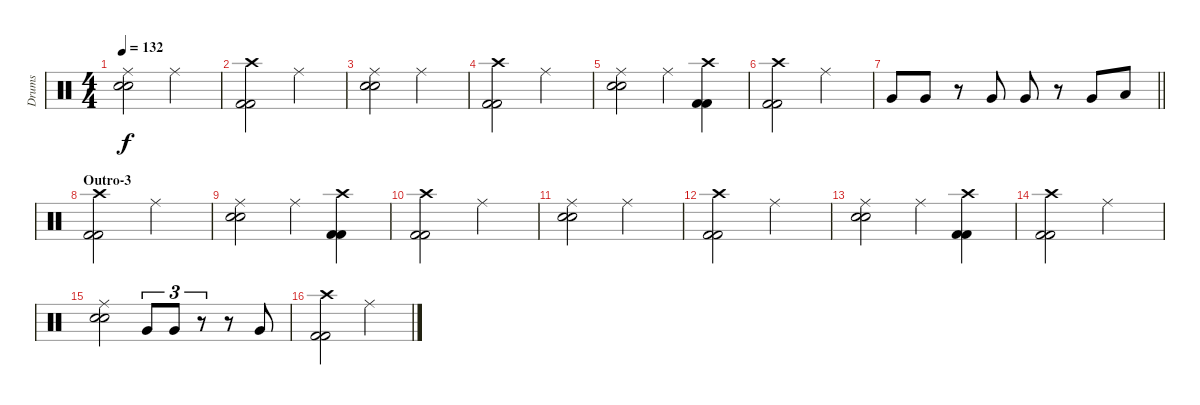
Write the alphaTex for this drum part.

\track ("Drums" "Drums") {instrument percussion}
\staff {score}
\articulation defaults
\ts (4 4)
\tempo 132
\clef neutral
\ks c
("Ride (middle)" "Snare (hit) 2" "Snare (hit) 2").2{dy f} "Ride (middle)".2 |
("Crash high (hit)" "Kick (hit) 2" "Kick (hit) 2").2 "Ride (middle)".2 |
("Ride (middle)" "Snare (hit) 2" "Snare (hit) 2").2 "Ride (middle)".2 |
("Crash high (hit)" "Kick (hit) 2" "Kick (hit) 2").2 "Ride (middle)".2 |
("Ride (middle)" "Snare (hit) 2" "Snare (hit) 2").2 "Ride (middle)".4 ("Crash high (hit)" "Kick (hit) 2" "Kick (hit) 2").4 |
("Crash high (hit)" "Kick (hit) 2" "Kick (hit) 2").2 "Ride (middle)".2 |
\barLineRight lightlight "Very Low Tom (hit)".8 "Very Low Tom (hit)".8
r.8 "Very Low Tom (hit)".8 "Very Low Tom (hit)".8 r.8 "Very Low Tom (hit)".8 "Low Floor Tom (hit)".8 |
\section ("" "Outro-3")
("Crash high (hit)" "Kick (hit) 2" "Kick (hit) 2").2{volume 9} "Ride (middle)".2 |
("Ride (middle)" "Snare (hit) 2" "Snare (hit) 2").2 "Ride (middle)".4 ("Crash high (hit)" "Kick (hit) 2" "Kick (hit) 2").4 |
("Crash high (hit)" "Kick (hit) 2" "Kick (hit) 2").2 "Ride (middle)".2 |
("Ride (middle)" "Snare (hit) 2" "Snare (hit) 2").2 "Ride (middle)".2 |
("Crash high (hit)" "Kick (hit) 2" "Kick (hit) 2").2 "Ride (middle)".2 |
("Ride (middle)" "Snare (hit) 2" "Snare (hit) 2").2 "Ride (middle)".4 ("Crash high (hit)" "Kick (hit) 2" "Kick (hit) 2").4 |
("Crash high (hit)" "Kick (hit) 2" "Kick (hit) 2").2{volume 5} "Ride (middle)".2 |
("Ride (middle)" "Snare (hit) 2" "Snare (hit) 2").2 "Very Low Tom (hit)".8{tu (3 2)} "Very Low Tom (hit)".8{tu (3 2)} r.8{tu (3 2)} r.8 "Very Low Tom (hit)".8 |
("Crash high (hit)" "Kick (hit) 2" "Kick (hit) 2").2 "Ride (middle)".2
